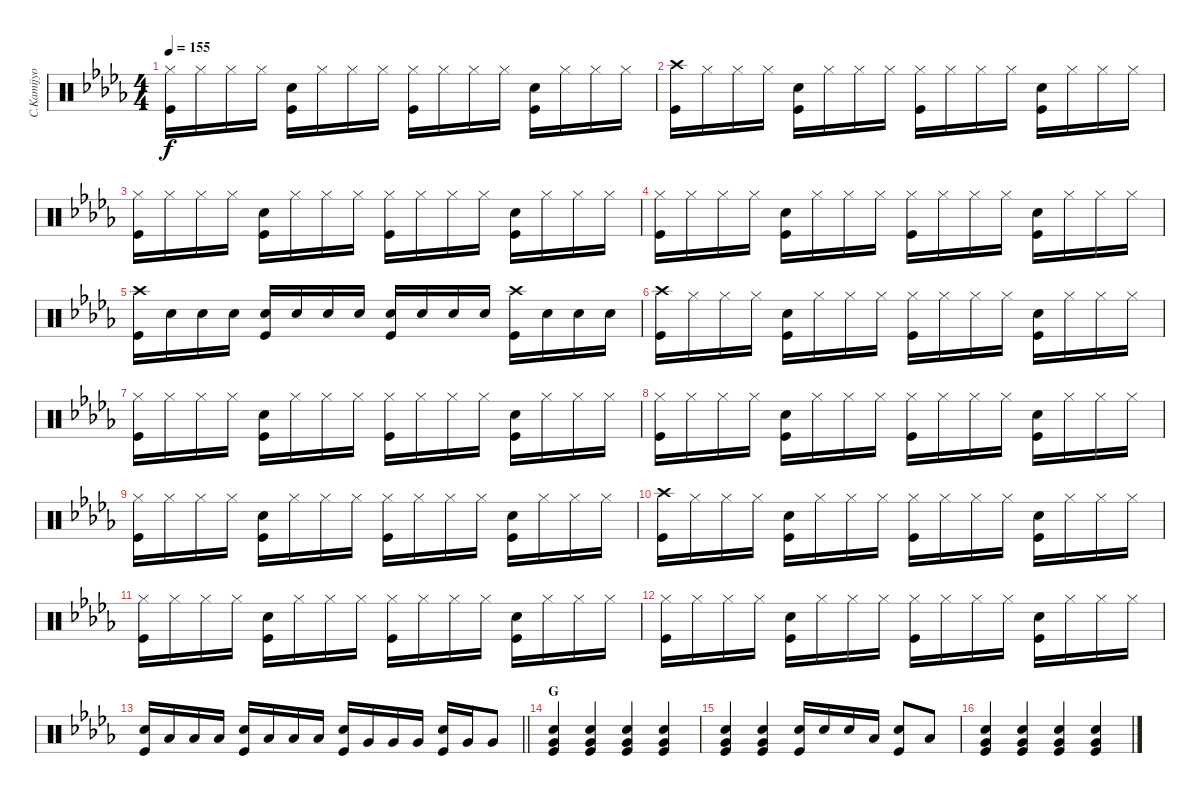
\track ("C.Kamijyo DRUMS" "C.Kamijyo ") {instrument percussion}
\staff {score}
\articulation defaults
\ts (4 4)
\tempo 155
\clef neutral
\ks db
("Hi-Hat (closed)" "Kick (hit)").16{dy f} "Hi-Hat (closed)".16 "Hi-Hat (closed)".16 "Hi-Hat (closed)".16 ("Snare (hit) 2" "Kick (hit)").16 "Hi-Hat (closed)".16 "Hi-Hat (closed)".16 "Hi-Hat (closed)".16 ("Hi-Hat (closed)" "Kick (hit)").16 "Hi-Hat (closed)".16 "Hi-Hat (closed)".16 "Hi-Hat (closed)".16 ("Snare (hit) 2" "Kick (hit)").16 "Hi-Hat (closed)".16 "Hi-Hat (closed)".16 "Hi-Hat (closed)".16 |
("Crash high (hit)" "Kick (hit)").16 "Hi-Hat (closed)".16 "Hi-Hat (closed)".16 "Hi-Hat (closed)".16 ("Snare (hit) 2" "Kick (hit)").16 "Hi-Hat (closed)".16 "Hi-Hat (closed)".16 "Hi-Hat (closed)".16 ("Hi-Hat (closed)" "Kick (hit)").16 "Hi-Hat (closed)".16 "Hi-Hat (closed)".16 "Hi-Hat (closed)".16 ("Snare (hit) 2" "Kick (hit)").16 "Hi-Hat (closed)".16 "Hi-Hat (closed)".16 "Hi-Hat (closed)".16 |
("Hi-Hat (closed)" "Kick (hit)").16 "Hi-Hat (closed)".16 "Hi-Hat (closed)".16 "Hi-Hat (closed)".16 ("Snare (hit) 2" "Kick (hit)").16 "Hi-Hat (closed)".16 "Hi-Hat (closed)".16 "Hi-Hat (closed)".16 ("Hi-Hat (closed)" "Kick (hit)").16 "Hi-Hat (closed)".16 "Hi-Hat (closed)".16 "Hi-Hat (closed)".16 ("Snare (hit) 2" "Kick (hit)").16 "Hi-Hat (closed)".16 "Hi-Hat (closed)".16 "Hi-Hat (closed)".16 |
("Hi-Hat (closed)" "Kick (hit)").16 "Hi-Hat (closed)".16 "Hi-Hat (closed)".16 "Hi-Hat (closed)".16 ("Snare (hit) 2" "Kick (hit)").16 "Hi-Hat (closed)".16 "Hi-Hat (closed)".16 "Hi-Hat (closed)".16 ("Hi-Hat (closed)" "Kick (hit)").16 "Hi-Hat (closed)".16 "Hi-Hat (closed)".16 "Hi-Hat (closed)".16 ("Snare (hit) 2" "Kick (hit)").16 "Hi-Hat (closed)".16 "Hi-Hat (closed)".16 "Hi-Hat (closed)".16 |
("Crash high (hit)" "Kick (hit)").16 "Snare (hit) 2".16 "Snare (hit) 2".16 "Snare (hit) 2".16 ("Snare (hit) 2" "Kick (hit)").16 "Snare (hit) 2".16 "Snare (hit) 2".16 "Snare (hit) 2".16 ("Snare (hit) 2" "Kick (hit)").16 "Snare (hit) 2".16 "Snare (hit) 2".16 "Snare (hit) 2".16 ("Crash high (hit)" "Kick (hit)").16 "Snare (hit) 2".16 "Snare (hit) 2".16 "Snare (hit) 2".16 |
("Crash high (hit)" "Kick (hit)").16 "Hi-Hat (closed)".16 "Hi-Hat (closed)".16 "Hi-Hat (closed)".16 ("Snare (hit) 2" "Kick (hit)").16 "Hi-Hat (closed)".16 "Hi-Hat (closed)".16 "Hi-Hat (closed)".16 ("Hi-Hat (closed)" "Kick (hit)").16 "Hi-Hat (closed)".16 "Hi-Hat (closed)".16 "Hi-Hat (closed)".16 ("Snare (hit) 2" "Kick (hit)").16 "Hi-Hat (closed)".16 "Hi-Hat (closed)".16 "Hi-Hat (closed)".16 |
("Hi-Hat (closed)" "Kick (hit)").16 "Hi-Hat (closed)".16 "Hi-Hat (closed)".16 "Hi-Hat (closed)".16 ("Snare (hit) 2" "Kick (hit)").16 "Hi-Hat (closed)".16 "Hi-Hat (closed)".16 "Hi-Hat (closed)".16 ("Hi-Hat (closed)" "Kick (hit)").16 "Hi-Hat (closed)".16 "Hi-Hat (closed)".16 "Hi-Hat (closed)".16 ("Snare (hit) 2" "Kick (hit)").16 "Hi-Hat (closed)".16 "Hi-Hat (closed)".16 "Hi-Hat (closed)".16 |
("Hi-Hat (closed)" "Kick (hit)").16 "Hi-Hat (closed)".16 "Hi-Hat (closed)".16 "Hi-Hat (closed)".16 ("Snare (hit) 2" "Kick (hit)").16 "Hi-Hat (closed)".16 "Hi-Hat (closed)".16 "Hi-Hat (closed)".16 ("Hi-Hat (closed)" "Kick (hit)").16 "Hi-Hat (closed)".16 "Hi-Hat (closed)".16 "Hi-Hat (closed)".16 ("Snare (hit) 2" "Kick (hit)").16 "Hi-Hat (closed)".16 "Hi-Hat (closed)".16 "Hi-Hat (closed)".16 |
("Hi-Hat (closed)" "Kick (hit)").16 "Hi-Hat (closed)".16 "Hi-Hat (closed)".16 "Hi-Hat (closed)".16 ("Snare (hit) 2" "Kick (hit)").16 "Hi-Hat (closed)".16 "Hi-Hat (closed)".16 "Hi-Hat (closed)".16 ("Hi-Hat (closed)" "Kick (hit)").16 "Hi-Hat (closed)".16 "Hi-Hat (closed)".16 "Hi-Hat (closed)".16 ("Snare (hit) 2" "Kick (hit)").16 "Hi-Hat (closed)".16 "Hi-Hat (closed)".16 "Hi-Hat (closed)".16 |
("Crash high (hit)" "Kick (hit)").16 "Hi-Hat (closed)".16 "Hi-Hat (closed)".16 "Hi-Hat (closed)".16 ("Snare (hit) 2" "Kick (hit)").16 "Hi-Hat (closed)".16 "Hi-Hat (closed)".16 "Hi-Hat (closed)".16 ("Hi-Hat (closed)" "Kick (hit)").16 "Hi-Hat (closed)".16 "Hi-Hat (closed)".16 "Hi-Hat (closed)".16 ("Snare (hit) 2" "Kick (hit)").16 "Hi-Hat (closed)".16 "Hi-Hat (closed)".16 "Hi-Hat (closed)".16 |
("Hi-Hat (closed)" "Kick (hit)").16 "Hi-Hat (closed)".16 "Hi-Hat (closed)".16 "Hi-Hat (closed)".16 ("Snare (hit) 2" "Kick (hit)").16 "Hi-Hat (closed)".16 "Hi-Hat (closed)".16 "Hi-Hat (closed)".16 ("Hi-Hat (closed)" "Kick (hit)").16 "Hi-Hat (closed)".16 "Hi-Hat (closed)".16 "Hi-Hat (closed)".16 ("Snare (hit) 2" "Kick (hit)").16 "Hi-Hat (closed)".16 "Hi-Hat (closed)".16 "Hi-Hat (closed)".16 |
("Hi-Hat (closed)" "Kick (hit)").16 "Hi-Hat (closed)".16 "Hi-Hat (closed)".16 "Hi-Hat (closed)".16 ("Snare (hit) 2" "Kick (hit)").16 "Hi-Hat (closed)".16 "Hi-Hat (closed)".16 "Hi-Hat (closed)".16 ("Hi-Hat (closed)" "Kick (hit)").16 "Hi-Hat (closed)".16 "Hi-Hat (closed)".16 "Hi-Hat (closed)".16 ("Snare (hit) 2" "Kick (hit)").16 "Hi-Hat (closed)".16 "Hi-Hat (closed)".16 "Hi-Hat (closed)".16 |
\barLineRight lightlight
("Snare (hit) 2" "Kick (hit)").16 "Low Tom (hit)".16 "Low Tom (hit)".16 "Low Tom (hit)".16 ("Snare (hit) 2" "Kick (hit)").16 "Low Tom (hit)".16 "Low Tom (hit)".16 "Low Tom (hit)".16 ("Snare (hit) 2" "Kick (hit)").16 "Very Low Tom (hit)".16 "Very Low Tom (hit)".16 "Very Low Tom (hit)".16 ("Snare (hit) 2" "Kick (hit)").16 "Very Low Tom (hit)".16 "Very Low Tom (hit)".8 |
\section ("" "G")
("Snare (hit) 2" "Kick (hit)" "Very Low Tom (hit)").4 ("Snare (hit) 2" "Kick (hit)" "Very Low Tom (hit)").4 ("Snare (hit) 2" "Kick (hit)" "Very Low Tom (hit)").4 ("Snare (hit) 2" "Kick (hit)" "Very Low Tom (hit)").4 |
("Snare (hit) 2" "Kick (hit)" "Very Low Tom (hit)").4 ("Snare (hit) 2" "Kick (hit)" "Very Low Tom (hit)").4 ("Snare (hit) 2" "Kick (hit)").16 "Snare (hit) 2".16 "Snare (hit) 2".16 "Low Tom (hit)".16 ("Snare (hit) 2" "Kick (hit)").8 "Low Tom (hit)".8 |
("Snare (hit) 2" "Kick (hit)" "Very Low Tom (hit)").4 ("Snare (hit) 2" "Kick (hit)" "Very Low Tom (hit)").4 ("Snare (hit) 2" "Kick (hit)" "Very Low Tom (hit)").4 ("Snare (hit) 2" "Kick (hit)" "Very Low Tom (hit)").4
